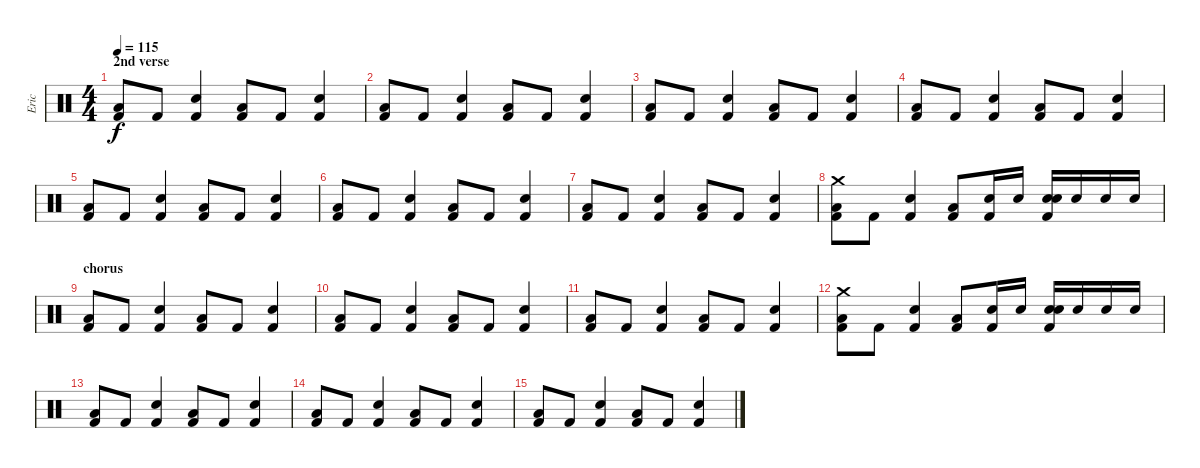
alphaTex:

\track ("Eric" "Eric") {instrument percussion}
\staff {score}
\articulation defaults
\ts (4 4)
\section ("" "2nd verse")
\tempo 115
\clef neutral
\ks c
("Low Floor Tom (hit)" "Kick (hit) 2").8{dy f} "Kick (hit) 2".8 ("Snare (hit) 2" "Kick (hit) 2").4 ("Low Floor Tom (hit)" "Kick (hit) 2").8 "Kick (hit) 2".8 ("Snare (hit) 2" "Kick (hit) 2").4 |
("Low Floor Tom (hit)" "Kick (hit) 2").8 "Kick (hit) 2".8 ("Snare (hit) 2" "Kick (hit) 2").4 ("Low Floor Tom (hit)" "Kick (hit) 2").8 "Kick (hit) 2".8 ("Snare (hit) 2" "Kick (hit) 2").4 |
("Low Floor Tom (hit)" "Kick (hit) 2").8 "Kick (hit) 2".8 ("Snare (hit) 2" "Kick (hit) 2").4 ("Low Floor Tom (hit)" "Kick (hit) 2").8 "Kick (hit) 2".8 ("Snare (hit) 2" "Kick (hit) 2").4 |
("Low Floor Tom (hit)" "Kick (hit) 2").8 "Kick (hit) 2".8 ("Snare (hit) 2" "Kick (hit) 2").4 ("Low Floor Tom (hit)" "Kick (hit) 2").8 "Kick (hit) 2".8 ("Snare (hit) 2" "Kick (hit) 2").4 |
("Low Floor Tom (hit)" "Kick (hit) 2").8 "Kick (hit) 2".8 ("Snare (hit) 2" "Kick (hit) 2").4 ("Low Floor Tom (hit)" "Kick (hit) 2").8 "Kick (hit) 2".8 ("Snare (hit) 2" "Kick (hit) 2").4 |
("Low Floor Tom (hit)" "Kick (hit) 2").8 "Kick (hit) 2".8 ("Snare (hit) 2" "Kick (hit) 2").4 ("Low Floor Tom (hit)" "Kick (hit) 2").8 "Kick (hit) 2".8 ("Snare (hit) 2" "Kick (hit) 2").4 |
("Low Floor Tom (hit)" "Kick (hit) 2").8 "Kick (hit) 2".8 ("Snare (hit) 2" "Kick (hit) 2").4 ("Low Floor Tom (hit)" "Kick (hit) 2").8 "Kick (hit) 2".8 ("Snare (hit) 2" "Kick (hit) 2").4 |
("Crash medium (hit)" "Low Floor Tom (hit)" "Kick (hit) 2").8 "Kick (hit) 2".8 ("Snare (hit) 2" "Kick (hit) 2").4 ("Low Floor Tom (hit)" "Kick (hit) 2").8 ("Snare (hit) 2" "Kick (hit) 2").16 "Snare (hit) 2".16 ("Electric Snare (hit)" "Snare (hit) 2" "Kick (hit) 2").16 "Electric Snare (hit)".16 "Snare (hit) 2".16 "Snare (hit) 2".16 |
\section ("" "chorus")
("Low Floor Tom (hit)" "Kick (hit) 2").8 "Kick (hit) 2".8 ("Snare (hit) 2" "Kick (hit) 2").4 ("Low Floor Tom (hit)" "Kick (hit) 2").8 "Kick (hit) 2".8 ("Snare (hit) 2" "Kick (hit) 2").4 |
("Low Floor Tom (hit)" "Kick (hit) 2").8 "Kick (hit) 2".8 ("Snare (hit) 2" "Kick (hit) 2").4 ("Low Floor Tom (hit)" "Kick (hit) 2").8 "Kick (hit) 2".8 ("Snare (hit) 2" "Kick (hit) 2").4 |
("Low Floor Tom (hit)" "Kick (hit) 2").8 "Kick (hit) 2".8 ("Snare (hit) 2" "Kick (hit) 2").4 ("Low Floor Tom (hit)" "Kick (hit) 2").8 "Kick (hit) 2".8 ("Snare (hit) 2" "Kick (hit) 2").4 |
("Crash medium (hit)" "Low Floor Tom (hit)" "Kick (hit) 2").8 "Kick (hit) 2".8 ("Snare (hit) 2" "Kick (hit) 2").4 ("Low Floor Tom (hit)" "Kick (hit) 2").8 ("Snare (hit) 2" "Kick (hit) 2").16 "Snare (hit) 2".16 ("Electric Snare (hit)" "Snare (hit) 2" "Kick (hit) 2").16 "Electric Snare (hit)".16 "Snare (hit) 2".16 "Snare (hit) 2".16 |
("Low Floor Tom (hit)" "Kick (hit) 2").8 "Kick (hit) 2".8 ("Snare (hit) 2" "Kick (hit) 2").4 ("Low Floor Tom (hit)" "Kick (hit) 2").8 "Kick (hit) 2".8 ("Snare (hit) 2" "Kick (hit) 2").4 |
("Low Floor Tom (hit)" "Kick (hit) 2").8 "Kick (hit) 2".8 ("Snare (hit) 2" "Kick (hit) 2").4 ("Low Floor Tom (hit)" "Kick (hit) 2").8 "Kick (hit) 2".8 ("Snare (hit) 2" "Kick (hit) 2").4 |
("Low Floor Tom (hit)" "Kick (hit) 2").8 "Kick (hit) 2".8 ("Snare (hit) 2" "Kick (hit) 2").4 ("Low Floor Tom (hit)" "Kick (hit) 2").8 "Kick (hit) 2".8 ("Snare (hit) 2" "Kick (hit) 2").4
